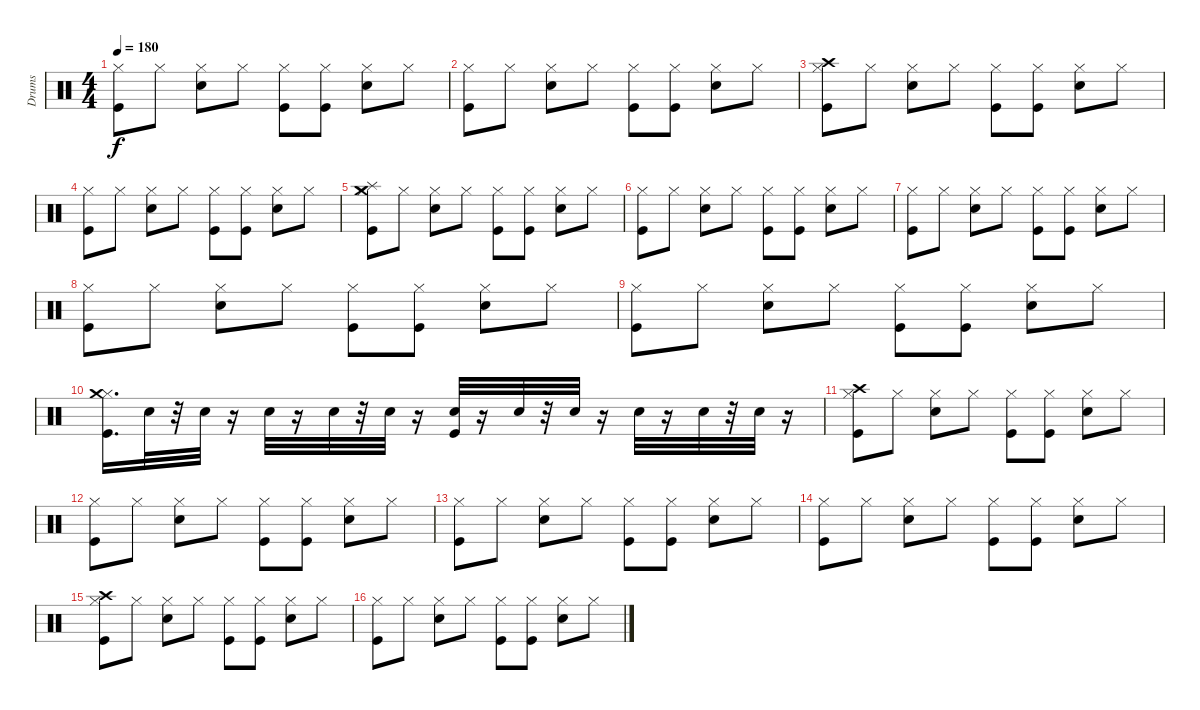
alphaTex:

\track ("Drums" "Drums") {instrument percussion}
\staff {score}
\articulation defaults
\ts (4 4)
\tempo 180
\clef neutral
\ks c
("Hi-Hat (closed)" "Kick (hit)").8{dy f} "Hi-Hat (closed)".8 ("Hi-Hat (closed)" "Electric Snare (hit)").8 "Hi-Hat (closed)".8 ("Kick (hit)" "Hi-Hat (closed)").8 ("Hi-Hat (closed)" "Kick (hit)").8 ("Hi-Hat (closed)" "Electric Snare (hit)").8 "Hi-Hat (closed)".8 |
("Hi-Hat (closed)" "Kick (hit)").8 "Hi-Hat (closed)".8 ("Hi-Hat (closed)" "Electric Snare (hit)").8 "Hi-Hat (closed)".8 ("Kick (hit)" "Hi-Hat (closed)").8 ("Hi-Hat (closed)" "Kick (hit)").8 ("Hi-Hat (closed)" "Electric Snare (hit)").8 "Hi-Hat (closed)".8 |
("Crash high (hit)" "Hi-Hat (closed)" "Kick (hit)").8 "Hi-Hat (closed)".8 ("Hi-Hat (closed)" "Electric Snare (hit)").8 "Hi-Hat (closed)".8 ("Kick (hit)" "Hi-Hat (closed)").8 ("Hi-Hat (closed)" "Kick (hit)").8 ("Hi-Hat (closed)" "Electric Snare (hit)").8 "Hi-Hat (closed)".8 |
("Hi-Hat (closed)" "Kick (hit)").8 "Hi-Hat (closed)".8 ("Hi-Hat (closed)" "Electric Snare (hit)").8 "Hi-Hat (closed)".8 ("Kick (hit)" "Hi-Hat (closed)").8 ("Hi-Hat (closed)" "Kick (hit)").8 ("Hi-Hat (closed)" "Electric Snare (hit)").8 "Hi-Hat (closed)".8 |
("Crash medium (hit)" "Splash (hit)" "Hi-Hat (closed)" "Kick (hit)").8 "Hi-Hat (closed)".8 ("Hi-Hat (closed)" "Electric Snare (hit)").8 "Hi-Hat (closed)".8 ("Kick (hit)" "Hi-Hat (closed)").8 ("Hi-Hat (closed)" "Kick (hit)").8 ("Hi-Hat (closed)" "Electric Snare (hit)").8 "Hi-Hat (closed)".8 |
("Hi-Hat (closed)" "Kick (hit)").8 "Hi-Hat (closed)".8 ("Hi-Hat (closed)" "Electric Snare (hit)").8 "Hi-Hat (closed)".8 ("Kick (hit)" "Hi-Hat (closed)").8 ("Hi-Hat (closed)" "Kick (hit)").8 ("Hi-Hat (closed)" "Electric Snare (hit)").8 "Hi-Hat (closed)".8 |
("Hi-Hat (closed)" "Kick (hit)").8 "Hi-Hat (closed)".8 ("Hi-Hat (closed)" "Electric Snare (hit)").8 "Hi-Hat (closed)".8 ("Kick (hit)" "Hi-Hat (closed)").8 ("Hi-Hat (closed)" "Kick (hit)").8 ("Hi-Hat (closed)" "Electric Snare (hit)").8 "Hi-Hat (closed)".8 |
("Hi-Hat (closed)" "Kick (hit)").8 "Hi-Hat (closed)".8 ("Hi-Hat (closed)" "Electric Snare (hit)").8 "Hi-Hat (closed)".8 ("Kick (hit)" "Hi-Hat (closed)").8 ("Hi-Hat (closed)" "Kick (hit)").8 ("Hi-Hat (closed)" "Electric Snare (hit)").8 "Hi-Hat (closed)".8 |
("Hi-Hat (closed)" "Kick (hit)").8 "Hi-Hat (closed)".8 ("Hi-Hat (closed)" "Electric Snare (hit)").8 "Hi-Hat (closed)".8 ("Kick (hit)" "Hi-Hat (closed)").8 ("Hi-Hat (closed)" "Kick (hit)").8 ("Hi-Hat (closed)" "Electric Snare (hit)").8 "Hi-Hat (closed)".8 |
("Hi-Hat (closed)" "Crash medium (hit)" "Kick (hit)").16{d} "Electric Snare (hit)".32 r.32 "Electric Snare (hit)".32 r.16 "Electric Snare (hit)".32 r.16 "Electric Snare (hit)".32 r.32 "Electric Snare (hit)".32 r.16 ("Kick (hit)" "Electric Snare (hit)").32 r.16 "Electric Snare (hit)".32 r.32 "Electric Snare (hit)".32 r.16 "Electric Snare (hit)".32 r.16 "Electric Snare (hit)".32 r.32 "Electric Snare (hit)".32 r.16 |
("Crash high (hit)" "Hi-Hat (closed)" "Kick (hit)").8 "Hi-Hat (closed)".8 ("Hi-Hat (closed)" "Electric Snare (hit)").8 "Hi-Hat (closed)".8 ("Kick (hit)" "Hi-Hat (closed)").8 ("Hi-Hat (closed)" "Kick (hit)").8 ("Hi-Hat (closed)" "Electric Snare (hit)").8 "Hi-Hat (closed)".8 |
("Hi-Hat (closed)" "Kick (hit)").8 "Hi-Hat (closed)".8 ("Hi-Hat (closed)" "Electric Snare (hit)").8 "Hi-Hat (closed)".8 ("Kick (hit)" "Hi-Hat (closed)").8 ("Hi-Hat (closed)" "Kick (hit)").8 ("Hi-Hat (closed)" "Electric Snare (hit)").8 "Hi-Hat (closed)".8 |
("Hi-Hat (closed)" "Kick (hit)").8 "Hi-Hat (closed)".8 ("Hi-Hat (closed)" "Electric Snare (hit)").8 "Hi-Hat (closed)".8 ("Kick (hit)" "Hi-Hat (closed)").8 ("Hi-Hat (closed)" "Kick (hit)").8 ("Hi-Hat (closed)" "Electric Snare (hit)").8 "Hi-Hat (closed)".8 |
("Hi-Hat (closed)" "Kick (hit)").8 "Hi-Hat (closed)".8 ("Hi-Hat (closed)" "Electric Snare (hit)").8 "Hi-Hat (closed)".8 ("Kick (hit)" "Hi-Hat (closed)").8 ("Hi-Hat (closed)" "Kick (hit)").8 ("Hi-Hat (closed)" "Electric Snare (hit)").8 "Hi-Hat (closed)".8 |
("Crash high (hit)" "Hi-Hat (closed)" "Kick (hit)").8 "Hi-Hat (closed)".8 ("Hi-Hat (closed)" "Electric Snare (hit)").8 "Hi-Hat (closed)".8 ("Kick (hit)" "Hi-Hat (closed)").8 ("Hi-Hat (closed)" "Kick (hit)").8 ("Hi-Hat (closed)" "Electric Snare (hit)").8 "Hi-Hat (closed)".8 |
("Hi-Hat (closed)" "Kick (hit)").8 "Hi-Hat (closed)".8 ("Hi-Hat (closed)" "Electric Snare (hit)").8 "Hi-Hat (closed)".8 ("Kick (hit)" "Hi-Hat (closed)").8 ("Hi-Hat (closed)" "Kick (hit)").8 ("Hi-Hat (closed)" "Electric Snare (hit)").8 "Hi-Hat (closed)".8
